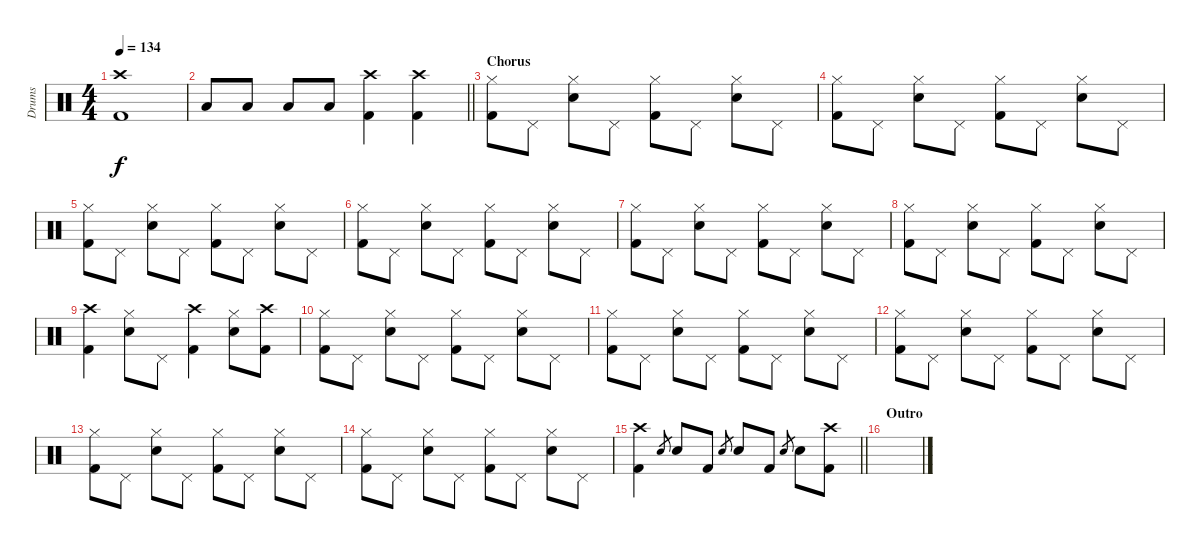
\track ("Drums" "Drums") {instrument percussion}
\staff {score}
\articulation defaults
\ts (4 4)
\tempo 134
\clef neutral
\ks c
("Crash high (hit)"{t} "Kick (hit) 2"{t}).1{dy f} |
\barLineRight lightlight "Low Tom (hit)".8 "Low Tom (hit)".8 "Low Tom (hit)".8 "Low Tom (hit)".8
("Crash high (hit)" "Kick (hit) 2").4 ("Crash high (hit)" "Kick (hit) 2").4 |
\section ("" "Chorus")
("Hi-Hat (closed)" "Kick (hit) 2").8 "Pedal Hi-Hat (hit)".8 ("Hi-Hat (closed)" "Snare (hit) 2").8 "Pedal Hi-Hat (hit)".8 ("Hi-Hat (closed)" "Kick (hit) 2").8 "Pedal Hi-Hat (hit)".8 ("Hi-Hat (closed)" "Snare (hit) 2").8 "Pedal Hi-Hat (hit)".8 |
("Hi-Hat (closed)" "Kick (hit) 2").8 "Pedal Hi-Hat (hit)".8 ("Hi-Hat (closed)" "Snare (hit) 2").8 "Pedal Hi-Hat (hit)".8 ("Hi-Hat (closed)" "Kick (hit) 2").8 "Pedal Hi-Hat (hit)".8 ("Hi-Hat (closed)" "Snare (hit) 2").8 "Pedal Hi-Hat (hit)".8 |
("Hi-Hat (closed)" "Kick (hit) 2").8 "Pedal Hi-Hat (hit)".8 ("Hi-Hat (closed)" "Snare (hit) 2").8 "Pedal Hi-Hat (hit)".8 ("Hi-Hat (closed)" "Kick (hit) 2").8 "Pedal Hi-Hat (hit)".8 ("Hi-Hat (closed)" "Snare (hit) 2").8 "Pedal Hi-Hat (hit)".8 |
("Hi-Hat (closed)" "Kick (hit) 2").8 "Pedal Hi-Hat (hit)".8 ("Hi-Hat (closed)" "Snare (hit) 2").8 "Pedal Hi-Hat (hit)".8 ("Hi-Hat (closed)" "Kick (hit) 2").8 "Pedal Hi-Hat (hit)".8 ("Hi-Hat (closed)" "Snare (hit) 2").8 "Pedal Hi-Hat (hit)".8 |
("Hi-Hat (closed)" "Kick (hit) 2").8 "Pedal Hi-Hat (hit)".8 ("Hi-Hat (closed)" "Snare (hit) 2").8 "Pedal Hi-Hat (hit)".8 ("Hi-Hat (closed)" "Kick (hit) 2").8 "Pedal Hi-Hat (hit)".8 ("Hi-Hat (closed)" "Snare (hit) 2").8 "Pedal Hi-Hat (hit)".8 |
("Hi-Hat (closed)" "Kick (hit) 2").8 "Pedal Hi-Hat (hit)".8 ("Hi-Hat (closed)" "Snare (hit) 2").8 "Pedal Hi-Hat (hit)".8 ("Hi-Hat (closed)" "Kick (hit) 2").8 "Pedal Hi-Hat (hit)".8 ("Hi-Hat (closed)" "Snare (hit) 2").8 "Pedal Hi-Hat (hit)".8 |
("Crash high (hit)" "Kick (hit) 2").4 ("Hi-Hat (closed)" "Snare (hit) 2").8 "Pedal Hi-Hat (hit)".8 ("Crash high (hit)" "Kick (hit) 2").4 ("Hi-Hat (closed)" "Snare (hit) 2").8 ("Crash high (hit)" "Kick (hit) 2").8 |
("Hi-Hat (closed)" "Kick (hit) 2").8 "Pedal Hi-Hat (hit)".8 ("Hi-Hat (closed)" "Snare (hit) 2").8 "Pedal Hi-Hat (hit)".8 ("Hi-Hat (closed)" "Kick (hit) 2").8 "Pedal Hi-Hat (hit)".8 ("Hi-Hat (closed)" "Snare (hit) 2").8 "Pedal Hi-Hat (hit)".8 |
("Hi-Hat (closed)" "Kick (hit) 2").8 "Pedal Hi-Hat (hit)".8 ("Hi-Hat (closed)" "Snare (hit) 2").8 "Pedal Hi-Hat (hit)".8 ("Hi-Hat (closed)" "Kick (hit) 2").8 "Pedal Hi-Hat (hit)".8 ("Hi-Hat (closed)" "Snare (hit) 2").8 "Pedal Hi-Hat (hit)".8 |
("Hi-Hat (closed)" "Kick (hit) 2").8 "Pedal Hi-Hat (hit)".8 ("Hi-Hat (closed)" "Snare (hit) 2").8 "Pedal Hi-Hat (hit)".8 ("Hi-Hat (closed)" "Kick (hit) 2").8 "Pedal Hi-Hat (hit)".8 ("Hi-Hat (closed)" "Snare (hit) 2").8 "Pedal Hi-Hat (hit)".8 |
("Hi-Hat (closed)" "Kick (hit) 2").8 "Pedal Hi-Hat (hit)".8 ("Hi-Hat (closed)" "Snare (hit) 2").8 "Pedal Hi-Hat (hit)".8 ("Hi-Hat (closed)" "Kick (hit) 2").8 "Pedal Hi-Hat (hit)".8 ("Hi-Hat (closed)" "Snare (hit) 2").8 "Pedal Hi-Hat (hit)".8 |
("Hi-Hat (closed)" "Kick (hit) 2").8 "Pedal Hi-Hat (hit)".8 ("Hi-Hat (closed)" "Snare (hit) 2").8 "Pedal Hi-Hat (hit)".8 ("Hi-Hat (closed)" "Kick (hit) 2").8 "Pedal Hi-Hat (hit)".8 ("Hi-Hat (closed)" "Snare (hit) 2").8 "Pedal Hi-Hat (hit)".8 |
\barLineRight lightlight
("Crash high (hit)" "Kick (hit) 2").4 "Snare (hit) 2".8{gr} "Snare (hit) 2".8 "Kick (hit) 2".8 "Snare (hit) 2".8{gr} "Snare (hit) 2".8 "Kick (hit) 2".8 "Snare (hit) 2".8{gr} "Snare (hit) 2".8 ("Crash high (hit)" "Kick (hit) 2").8 |
\section ("" "Outro")
